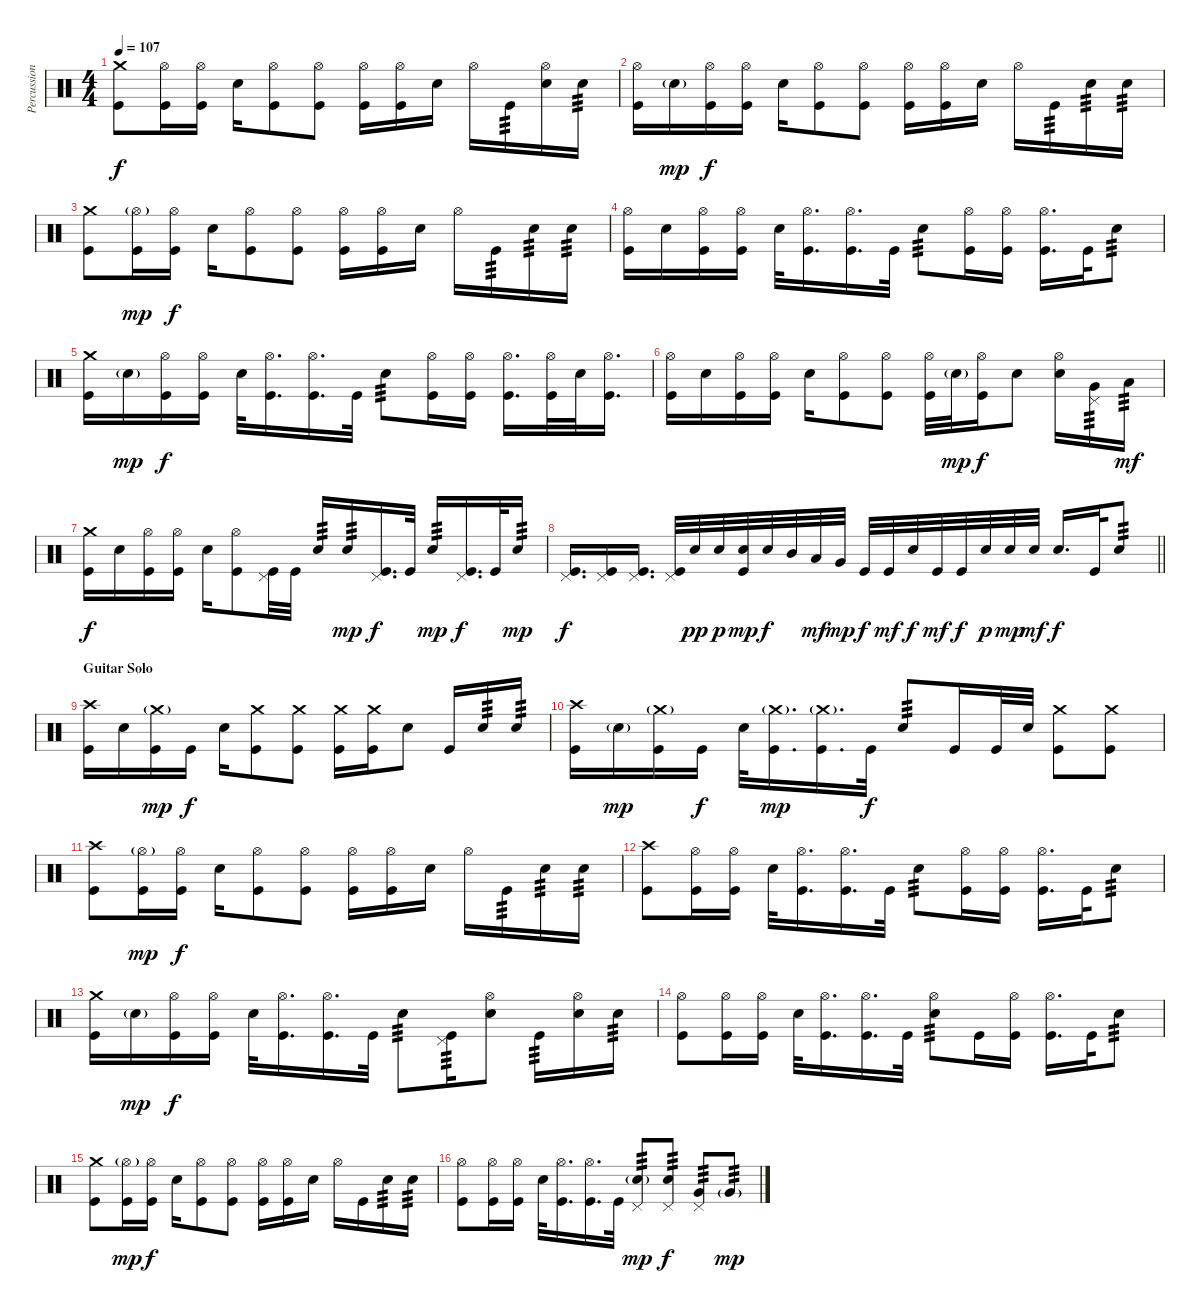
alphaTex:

\track ("Percussion" "Percussion") {instrument percussion}
\staff {score}
\articulation defaults
\ts (4 4)
\tempo 107
\clef neutral
\ks c
("Crash medium (hit)" "Kick (hit)").8{dy f} ("Hi-Hat (open)" "Kick (hit)").16 ("Hi-Hat (open)" "Kick (hit)").16 "Snare (hit) 2".16 ("Hi-Hat (open)" "Kick (hit)").8 ("Hi-Hat (open)" "Kick (hit)").8 ("Hi-Hat (open)" "Kick (hit)").16 ("Hi-Hat (open)" "Kick (hit)").16 "Snare (hit) 2".16 "Hi-Hat (open)".16 "Kick (hit)".16{tp 3} ("Hi-Hat (open)" "Snare (hit) 2").16 "Snare (hit) 2".16{tp 3} |
("Hi-Hat (open)" "Kick (hit)").16 "Snare (hit) 2"{g}.16{dy mp} ("Hi-Hat (open)" "Kick (hit)").16{dy f} ("Hi-Hat (open)" "Kick (hit)").16 "Snare (hit) 2".16 ("Hi-Hat (open)" "Kick (hit)").8 ("Hi-Hat (open)" "Kick (hit)").8 ("Hi-Hat (open)" "Kick (hit)").16 ("Hi-Hat (open)" "Kick (hit)").16 "Snare (hit) 2".16 "Hi-Hat (open)".16 "Kick (hit)".16{tp 3} "Snare (hit) 2".16{tp 3} "Snare (hit) 2".16{tp 3} |
("Crash medium (hit)" "Kick (hit)").8 ("Hi-Hat (open)"{g} "Kick (hit)").16{dy mp} ("Hi-Hat (open)" "Kick (hit)").16{dy f} "Snare (hit) 2".16 ("Hi-Hat (open)" "Kick (hit)").8 ("Hi-Hat (open)" "Kick (hit)").8 ("Hi-Hat (open)" "Kick (hit)").16 ("Hi-Hat (open)" "Kick (hit)").16 "Snare (hit) 2".16 "Hi-Hat (open)".16 "Kick (hit)".16{tp 3} "Snare (hit) 2".16{tp 3} "Snare (hit) 2".16{tp 3} |
("Hi-Hat (open)" "Kick (hit)").16 "Snare (hit) 2".16 ("Hi-Hat (open)" "Kick (hit)").16 ("Hi-Hat (open)" "Kick (hit)").16 "Snare (hit) 2".32 ("Hi-Hat (open)" "Kick (hit)").16{d} ("Hi-Hat (open)" "Kick (hit)").16{d} "Kick (hit)".32 "Snare (hit) 2".8{tp 3} ("Hi-Hat (open)" "Kick (hit)").16 ("Hi-Hat (open)" "Kick (hit)").16 ("Hi-Hat (open)" "Kick (hit)").16{d} "Kick (hit)".32 "Snare (hit) 2".8{tp 3} |
("Crash medium (hit)" "Kick (hit)").16 "Snare (hit) 2"{g}.16{dy mp} ("Hi-Hat (open)" "Kick (hit)").16{dy f} ("Hi-Hat (open)" "Kick (hit)").16 "Snare (hit) 2".32 ("Hi-Hat (open)" "Kick (hit)").16{d} ("Hi-Hat (open)" "Kick (hit)").16{d} "Kick (hit)".32 "Snare (hit) 2".8{tp 3} ("Hi-Hat (open)" "Kick (hit)").16 ("Hi-Hat (open)" "Kick (hit)").16 ("Hi-Hat (open)" "Kick (hit)").16{d} ("Hi-Hat (open)" "Kick (hit)").32 "Snare (hit) 2".32 ("Hi-Hat (open)" "Kick (hit)").16{d} |
("Hi-Hat (open)" "Kick (hit)").16 "Snare (hit) 2".16 ("Hi-Hat (open)" "Kick (hit)").16 ("Hi-Hat (open)" "Kick (hit)").16 "Snare (hit) 2".16 ("Hi-Hat (open)" "Kick (hit)").8 ("Hi-Hat (open)" "Kick (hit)").8 ("Hi-Hat (open)" "Kick (hit)").32 "Snare (hit) 2"{g}.32{dy mp} ("Hi-Hat (open)" "Kick (hit)").16{dy f} "Snare (hit) 2".8 ("Hi-Hat (open)" "Snare (hit) 2").16 ("Pedal Hi-Hat (hit)" "Very Low Tom (hit)").16{tp 3} "Low Floor Tom (hit)".16{tp 3 dy mf} |
("Crash medium (hit)" "Kick (hit)").16{dy f} "Snare (hit) 2".16 ("Hi-Hat (open)" "Kick (hit)").16 ("Hi-Hat (open)" "Kick (hit)").16 "Snare (hit) 2".16 ("Hi-Hat (open)" "Kick (hit)").8 ("Pedal Hi-Hat (hit)" "Kick (hit)").32 "Kick (hit)".32 "Snare (hit) 2".16{tp 3} "Snare (hit) 2".16{tp 3 dy mp} ("Pedal Hi-Hat (hit)" "Kick (hit)").16{d dy f} "Kick (hit)".32 "Snare (hit) 2".16{tp 3 dy mp} ("Pedal Hi-Hat (hit)" "Kick (hit)").16{d dy f} "Kick (hit)".32 "Snare (hit) 2".16{tp 3 dy mp} |
\barLineRight lightlight
("Pedal Hi-Hat (hit)" "Kick (hit)").16{d dy f} ("Pedal Hi-Hat (hit)" "Kick (hit)").16 ("Pedal Hi-Hat (hit)" "Kick (hit)").16{d} ("Pedal Hi-Hat (hit)" "Kick (hit)").32 "Snare (hit) 2".32{dy pp} "Snare (hit) 2".32{dy p} ("Snare (hit) 2" "Kick (hit)").32{dy mp} "Snare (hit) 2".32{dy f} "Mid Tom (hit)".32 "Low Tom (hit)".32{dy mf} "Very Low Tom (hit)".32{dy mp} "Kick (hit)".32{dy f} "Kick (hit)".32{dy mf} "Snare (hit) 2".32{dy f} "Kick (hit)".32{dy mf} "Kick (hit)".32{dy f} "Snare (hit) 2".32{dy p} "Snare (hit) 2".32{dy mp} "Snare (hit) 2".32{dy mf} "Snare (hit) 2".16{d dy f} "Kick (hit)".32 "Snare (hit) 2".8{tp 3} |
\section ("" "Guitar Solo")
("Crash high (hit)" "Kick (hit)").16 "Snare (hit) 2".16 ("Crash medium (hit)"{g} "Kick (hit)").16{dy mp} "Kick (hit)".16{dy f} "Snare (hit) 2".16 ("Crash medium (hit)" "Kick (hit)").8 ("Crash medium (hit)" "Kick (hit)").8 ("Crash medium (hit)" "Kick (hit)").16 ("Crash medium (hit)" "Kick (hit)").16 "Snare (hit) 2".8 "Kick (hit)".16 "Snare (hit) 2".16{tp 3} "Snare (hit) 2".16{tp 3} |
("Crash high (hit)" "Kick (hit)").16 "Snare (hit) 2"{g}.16{dy mp} ("Crash medium (hit)"{g} "Kick (hit)").16 "Kick (hit)".16{dy f} "Snare (hit) 2".32 ("Crash medium (hit)"{g} "Kick (hit)").16{d dy mp} ("Crash medium (hit)"{g} "Kick (hit)").16{d} "Kick (hit)".32{dy f} "Snare (hit) 2".8{tp 3} "Kick (hit)".16 "Kick (hit)".32 "Snare (hit) 2".32 ("Crash medium (hit)" "Kick (hit)").8 ("Crash medium (hit)" "Kick (hit)").8 |
("Crash high (hit)" "Kick (hit)").8 ("Hi-Hat (open)"{g} "Kick (hit)").16{dy mp} ("Hi-Hat (open)" "Kick (hit)").16{dy f} "Snare (hit) 2".16 ("Hi-Hat (open)" "Kick (hit)").8 ("Hi-Hat (open)" "Kick (hit)").8 ("Hi-Hat (open)" "Kick (hit)").16 ("Hi-Hat (open)" "Kick (hit)").16 "Snare (hit) 2".16 "Hi-Hat (open)".16 "Kick (hit)".16{tp 3} "Snare (hit) 2".16{tp 3} "Snare (hit) 2".16{tp 3} |
("Crash high (hit)" "Kick (hit)").8 ("Hi-Hat (open)" "Kick (hit)").16 ("Hi-Hat (open)" "Kick (hit)").16 "Snare (hit) 2".32 ("Hi-Hat (open)" "Kick (hit)").16{d} ("Hi-Hat (open)" "Kick (hit)").16{d} "Kick (hit)".32 "Snare (hit) 2".8{tp 3} ("Hi-Hat (open)" "Kick (hit)").16 ("Hi-Hat (open)" "Kick (hit)").16 ("Hi-Hat (open)" "Kick (hit)").16{d} "Kick (hit)".32 "Snare (hit) 2".8{tp 3} |
("Crash medium (hit)" "Kick (hit)").16 "Snare (hit) 2"{g}.16{dy mp} ("Hi-Hat (open)" "Kick (hit)").16{dy f} ("Hi-Hat (open)" "Kick (hit)").16 "Snare (hit) 2".32 ("Hi-Hat (open)" "Kick (hit)").16{d} ("Hi-Hat (open)" "Kick (hit)").16{d} "Kick (hit)".32 "Snare (hit) 2".8{tp 3} ("Pedal Hi-Hat (hit)" "Kick (hit)").16{tp 3} ("Hi-Hat (open)" "Snare (hit) 2").8 "Kick (hit)".16{tp 3} ("Hi-Hat (open)" "Snare (hit) 2").16 "Snare (hit) 2".16{tp 3} |
("Hi-Hat (open)" "Kick (hit)").8 ("Hi-Hat (open)" "Kick (hit)").16 ("Hi-Hat (open)" "Kick (hit)").16 "Snare (hit) 2".32 ("Hi-Hat (open)" "Kick (hit)").16{d} ("Hi-Hat (open)" "Kick (hit)").16{d} "Kick (hit)".32 ("Hi-Hat (open)" "Snare (hit) 2").8{tp 3} "Kick (hit)".16 ("Hi-Hat (open)" "Kick (hit)").16 ("Hi-Hat (open)" "Kick (hit)").16{d} "Kick (hit)".32 "Snare (hit) 2".8{tp 3} |
("Crash medium (hit)" "Kick (hit)").8 ("Hi-Hat (open)"{g} "Kick (hit)").16{dy mp} ("Hi-Hat (open)" "Kick (hit)").16{dy f} "Snare (hit) 2".16 ("Hi-Hat (open)" "Kick (hit)").8 ("Hi-Hat (open)" "Kick (hit)").8 ("Hi-Hat (open)" "Kick (hit)").16 ("Hi-Hat (open)" "Kick (hit)").16 "Snare (hit) 2".16 "Hi-Hat (open)".16 "Kick (hit)".16 "Snare (hit) 2".16{tp 3} "Snare (hit) 2".16{tp 3} |
("Hi-Hat (open)" "Kick (hit)").8 ("Hi-Hat (open)" "Kick (hit)").16 ("Hi-Hat (open)" "Kick (hit)").16 "Snare (hit) 2".32 ("Hi-Hat (open)" "Kick (hit)").16{d} ("Hi-Hat (open)" "Kick (hit)").16{d} "Kick (hit)".32 ("Pedal Hi-Hat (hit)" "Snare (hit) 2"{g}).8{tp 3 dy mp} ("Pedal Hi-Hat (hit)" "Snare (hit) 2").8{tp 3 dy f} ("Pedal Hi-Hat (hit)" "Very Low Tom (hit)").8{tp 3} "Very Low Tom (hit)"{g}.8{tp 3 dy mp}
